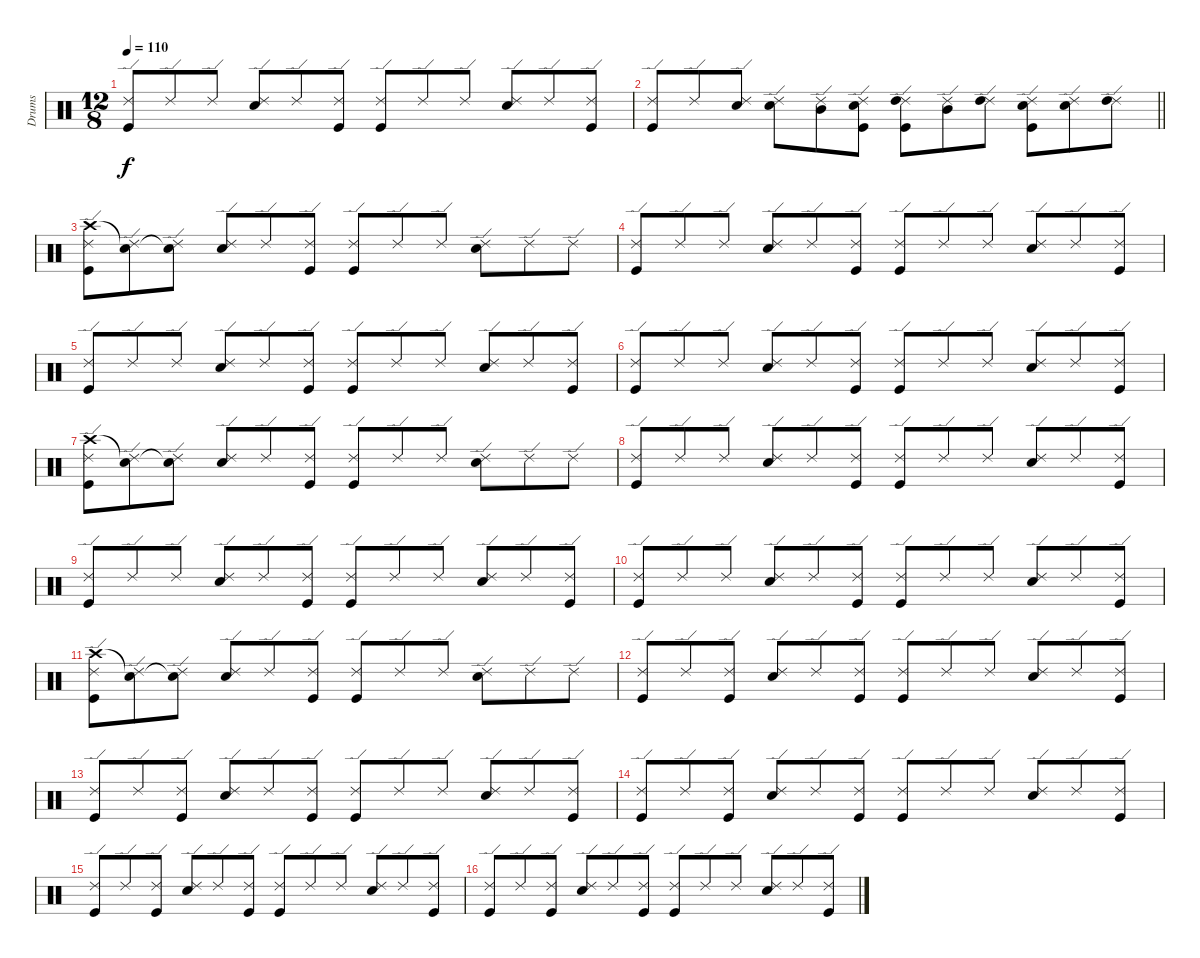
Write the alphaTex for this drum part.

\track ("Drums" "Drums") {instrument percussion}
\staff {score}
\articulation defaults
\ts (12 8)
\tempo 110
\clef neutral
\ks c
("Ride (edge) 2" "Kick (hit)").8{dy f} "Ride (edge) 2".8 "Ride (edge) 2".8 ("Ride (edge) 2" "Snare (hit) 2").8 "Ride (edge) 2".8 ("Ride (edge) 2" "Kick (hit)").8 ("Ride (edge) 2" "Kick (hit)").8 "Ride (edge) 2".8 "Ride (edge) 2".8 ("Ride (edge) 2" "Snare (hit) 2").8 "Ride (edge) 2".8 ("Ride (edge) 2" "Kick (hit)").8 |
\barLineRight lightlight
("Ride (edge) 2" "Kick (hit)").8 "Ride (edge) 2".8 ("Ride (edge) 2" "Snare (hit) 2").8 ("Ride (edge) 2" "Snare (hit) 2").8 ("Ride (edge) 2" "Mid Tom (hit)").8 ("Ride (edge) 2" "Snare (hit) 2" "Kick (hit)").8 ("Ride (edge) 2" "High Tom (hit)" "Kick (hit)").8 ("Ride (edge) 2" "Mid Tom (hit)").8 ("Ride (edge) 2" "High Tom (hit)").8 ("Ride (edge) 2" "Snare (hit) 2" "Kick (hit)").8 ("Ride (edge) 2" "Snare (hit) 2").8 ("Ride (edge) 2" "High Tom (hit)").8 |
("Ride (edge) 2" "Crash high (hit)" "Kick (hit)").8 ("Ride (edge) 2" "Snare (hit)"{t}).8 ("Ride (edge) 2" "Snare (hit)"{t}).8 ("Ride (edge) 2" "Snare (hit) 2").8 "Ride (edge) 2".8 ("Ride (edge) 2" "Kick (hit)").8 ("Ride (edge) 2" "Kick (hit)").8 "Ride (edge) 2".8 "Ride (edge) 2".8 ("Ride (edge) 2" "Snare (hit) 2").8 "Ride (edge) 2".8 "Ride (edge) 2".8 |
("Ride (edge) 2" "Kick (hit)").8 "Ride (edge) 2".8 "Ride (edge) 2".8 ("Ride (edge) 2" "Snare (hit) 2").8 "Ride (edge) 2".8 ("Ride (edge) 2" "Kick (hit)").8 ("Ride (edge) 2" "Kick (hit)").8 "Ride (edge) 2".8 "Ride (edge) 2".8 ("Ride (edge) 2" "Snare (hit) 2").8 "Ride (edge) 2".8 ("Ride (edge) 2" "Kick (hit)").8 |
("Ride (edge) 2" "Kick (hit)").8 "Ride (edge) 2".8 "Ride (edge) 2".8 ("Ride (edge) 2" "Snare (hit) 2").8 "Ride (edge) 2".8 ("Ride (edge) 2" "Kick (hit)").8 ("Ride (edge) 2" "Kick (hit)").8 "Ride (edge) 2".8 "Ride (edge) 2".8 ("Ride (edge) 2" "Snare (hit) 2").8 "Ride (edge) 2".8 ("Ride (edge) 2" "Kick (hit)").8 |
("Ride (edge) 2" "Kick (hit)").8 "Ride (edge) 2".8 "Ride (edge) 2".8 ("Ride (edge) 2" "Snare (hit) 2").8 "Ride (edge) 2".8 ("Ride (edge) 2" "Kick (hit)").8 ("Ride (edge) 2" "Kick (hit)").8 "Ride (edge) 2".8 "Ride (edge) 2".8 ("Ride (edge) 2" "Snare (hit) 2").8 "Ride (edge) 2".8 ("Ride (edge) 2" "Kick (hit)").8 |
("Ride (edge) 2" "Crash high (hit)" "Kick (hit)").8 ("Ride (edge) 2" "Snare (hit)"{t}).8 ("Ride (edge) 2" "Snare (hit)"{t}).8 ("Ride (edge) 2" "Snare (hit) 2").8 "Ride (edge) 2".8 ("Ride (edge) 2" "Kick (hit)").8 ("Ride (edge) 2" "Kick (hit)").8 "Ride (edge) 2".8 "Ride (edge) 2".8 ("Ride (edge) 2" "Snare (hit) 2").8 "Ride (edge) 2".8 "Ride (edge) 2".8 |
("Ride (edge) 2" "Kick (hit)").8 "Ride (edge) 2".8 "Ride (edge) 2".8 ("Ride (edge) 2" "Snare (hit) 2").8 "Ride (edge) 2".8 ("Ride (edge) 2" "Kick (hit)").8 ("Ride (edge) 2" "Kick (hit)").8 "Ride (edge) 2".8 "Ride (edge) 2".8 ("Ride (edge) 2" "Snare (hit) 2").8 "Ride (edge) 2".8 ("Ride (edge) 2" "Kick (hit)").8 |
("Ride (edge) 2" "Kick (hit)").8 "Ride (edge) 2".8 "Ride (edge) 2".8 ("Ride (edge) 2" "Snare (hit) 2").8 "Ride (edge) 2".8 ("Ride (edge) 2" "Kick (hit)").8 ("Ride (edge) 2" "Kick (hit)").8 "Ride (edge) 2".8 "Ride (edge) 2".8 ("Ride (edge) 2" "Snare (hit) 2").8 "Ride (edge) 2".8 ("Ride (edge) 2" "Kick (hit)").8 |
("Ride (edge) 2" "Kick (hit)").8 "Ride (edge) 2".8 "Ride (edge) 2".8 ("Ride (edge) 2" "Snare (hit) 2").8 "Ride (edge) 2".8 ("Ride (edge) 2" "Kick (hit)").8 ("Ride (edge) 2" "Kick (hit)").8 "Ride (edge) 2".8 "Ride (edge) 2".8 ("Ride (edge) 2" "Snare (hit) 2").8 "Ride (edge) 2".8 ("Ride (edge) 2" "Kick (hit)").8 |
("Ride (edge) 2" "Crash high (hit)" "Kick (hit)").8 ("Ride (edge) 2" "Snare (hit)"{t}).8 ("Ride (edge) 2" "Snare (hit)"{t}).8 ("Ride (edge) 2" "Snare (hit) 2").8 "Ride (edge) 2".8 ("Ride (edge) 2" "Kick (hit)").8 ("Ride (edge) 2" "Kick (hit)").8 "Ride (edge) 2".8 "Ride (edge) 2".8 ("Ride (edge) 2" "Snare (hit) 2").8 "Ride (edge) 2".8 "Ride (edge) 2".8 |
("Ride (edge) 2" "Kick (hit)").8 "Ride (edge) 2".8 ("Ride (edge) 2" "Kick (hit)").8 ("Ride (edge) 2" "Snare (hit) 2").8 "Ride (edge) 2".8 ("Ride (edge) 2" "Kick (hit)").8 ("Ride (edge) 2" "Kick (hit)").8 "Ride (edge) 2".8 "Ride (edge) 2".8 ("Ride (edge) 2" "Snare (hit) 2").8 "Ride (edge) 2".8 ("Ride (edge) 2" "Kick (hit)").8 |
("Ride (edge) 2" "Kick (hit)").8 "Ride (edge) 2".8 ("Ride (edge) 2" "Kick (hit)").8 ("Ride (edge) 2" "Snare (hit) 2").8 "Ride (edge) 2".8 ("Ride (edge) 2" "Kick (hit)").8 ("Ride (edge) 2" "Kick (hit)").8 "Ride (edge) 2".8 "Ride (edge) 2".8 ("Ride (edge) 2" "Snare (hit) 2").8 "Ride (edge) 2".8 ("Ride (edge) 2" "Kick (hit)").8 |
("Ride (edge) 2" "Kick (hit)").8 "Ride (edge) 2".8 ("Ride (edge) 2" "Kick (hit)").8 ("Ride (edge) 2" "Snare (hit) 2").8 "Ride (edge) 2".8 ("Ride (edge) 2" "Kick (hit)").8 ("Ride (edge) 2" "Kick (hit)").8 "Ride (edge) 2".8 "Ride (edge) 2".8 ("Ride (edge) 2" "Snare (hit) 2").8 "Ride (edge) 2".8 ("Ride (edge) 2" "Kick (hit)").8 |
("Ride (edge) 2" "Kick (hit)").8 "Ride (edge) 2".8 ("Ride (edge) 2" "Kick (hit)").8 ("Ride (edge) 2" "Snare (hit) 2").8 "Ride (edge) 2".8 ("Ride (edge) 2" "Kick (hit)").8 ("Ride (edge) 2" "Kick (hit)").8 "Ride (edge) 2".8 "Ride (edge) 2".8 ("Ride (edge) 2" "Snare (hit) 2").8 "Ride (edge) 2".8 ("Ride (edge) 2" "Kick (hit)").8 |
("Ride (edge) 2" "Kick (hit)").8 "Ride (edge) 2".8 ("Ride (edge) 2" "Kick (hit)").8 ("Ride (edge) 2" "Snare (hit) 2").8 "Ride (edge) 2".8 ("Ride (edge) 2" "Kick (hit)").8 ("Ride (edge) 2" "Kick (hit)").8 "Ride (edge) 2".8 "Ride (edge) 2".8 ("Ride (edge) 2" "Snare (hit) 2").8 "Ride (edge) 2".8 ("Ride (edge) 2" "Kick (hit)").8
